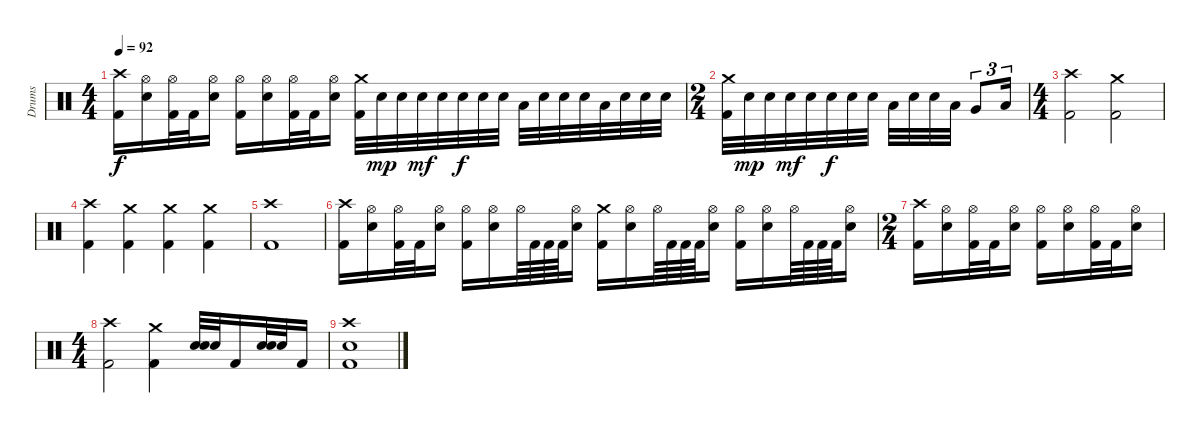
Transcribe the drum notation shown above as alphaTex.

\track ("Drums" "Drums") {instrument percussion}
\staff {score}
\articulation defaults
\ts (4 4)
\tempo 92
\clef neutral
\ks c
("Crash high (hit)" "Kick (hit) 2").16{dy f} ("Hi-Hat (open)" "Electric Snare (hit)").16 ("Hi-Hat (open)" "Kick (hit) 2").32 "Kick (hit) 2".32 ("Hi-Hat (open)" "Electric Snare (hit)").16 ("Hi-Hat (open)" "Kick (hit) 2").16 ("Hi-Hat (open)" "Electric Snare (hit)").16 ("Hi-Hat (open)" "Kick (hit) 2").32 "Kick (hit) 2".32 ("Hi-Hat (open)" "Electric Snare (hit)").16 ("Crash medium (hit)" "Kick (hit) 2").32 "Electric Snare (hit)".32{dy mp} "Electric Snare (hit)".32 "Electric Snare (hit)".32{dy mf} "Electric Snare (hit)".32 "Electric Snare (hit)".32{dy f} "Electric Snare (hit)".32 "Electric Snare (hit)".32 "Low Tom (hit)".32 "Electric Snare (hit)".32 "Electric Snare (hit)".32 "Electric Snare (hit)".32 "Low Tom (hit)".32 "Electric Snare (hit)".32 "Electric Snare (hit)".32 "Electric Snare (hit)".32 |
\ts (2 4)
("Crash medium (hit)" "Kick (hit) 2").32 "Electric Snare (hit)".32{dy mp} "Electric Snare (hit)".32 "Electric Snare (hit)".32{dy mf} "Electric Snare (hit)".32 "Electric Snare (hit)".32{dy f} "Electric Snare (hit)".32 "Electric Snare (hit)".32 "Low Tom (hit)".32 "Electric Snare (hit)".32 "Electric Snare (hit)".32 "Low Tom (hit)".32 "Very Low Tom (hit)".8{tu (3 2)} "Low Floor Tom (hit)".16{tu (3 2)} |
\ts (4 4)
("Crash high (hit)" "Kick (hit) 2").2 ("Crash medium (hit)" "Kick (hit) 2").2 |
("Crash high (hit)" "Kick (hit) 2").4 ("Crash medium (hit)" "Kick (hit) 2").4 ("Crash medium (hit)" "Kick (hit) 2").4 ("Crash medium (hit)" "Kick (hit) 2").4 |
("Crash high (hit)" "Kick (hit) 2").1 |
("Crash high (hit)" "Kick (hit) 2").16 ("Hi-Hat (open)" "Electric Snare (hit)").16 ("Hi-Hat (open)" "Kick (hit) 2").32 "Kick (hit) 2".32 ("Hi-Hat (open)" "Electric Snare (hit)").16 ("Hi-Hat (open)" "Kick (hit) 2").16 ("Hi-Hat (open)" "Electric Snare (hit)").16 "Hi-Hat (open)".64 "Kick (hit) 2".64 "Kick (hit) 2".64 "Kick (hit) 2".64 ("Hi-Hat (open)" "Electric Snare (hit)").16 ("Crash medium (hit)" "Kick (hit) 2").16 ("Hi-Hat (open)" "Electric Snare (hit)").16 "Hi-Hat (open)".64 "Kick (hit) 2".64 "Kick (hit) 2".64 "Kick (hit) 2".64 ("Hi-Hat (open)" "Electric Snare (hit)").16 ("Hi-Hat (open)" "Kick (hit) 2").16 ("Hi-Hat (open)" "Electric Snare (hit)").16 "Hi-Hat (open)".64 "Kick (hit) 2".64 "Kick (hit) 2".64 "Kick (hit) 2".64 ("Hi-Hat (open)" "Electric Snare (hit)").16 |
\ts (2 4)
("Crash high (hit)" "Kick (hit) 2").16 ("Hi-Hat (open)" "Electric Snare (hit)").16 ("Hi-Hat (open)" "Kick (hit) 2").32 "Kick (hit) 2".32 ("Hi-Hat (open)" "Electric Snare (hit)").16 ("Hi-Hat (open)" "Kick (hit) 2").16 ("Hi-Hat (open)" "Electric Snare (hit)").16 ("Hi-Hat (open)" "Kick (hit) 2").32 "Kick (hit) 2".32 ("Hi-Hat (open)" "Electric Snare (hit)").16 |
\ts (4 4)
("Crash high (hit)" "Kick (hit) 2").2 ("Crash medium (hit)" "Kick (hit) 2").4 ("Electric Snare (hit)" "Electric Snare (hit)").32{bd 30} "Electric Snare (hit)".32 "Kick (hit) 2".16 ("Electric Snare (hit)" "Electric Snare (hit)").32{bd 30} "Electric Snare (hit)".32 "Kick (hit) 2".16 |
("Crash high (hit)" "Electric Snare (hit)" "Kick (hit) 2").1
